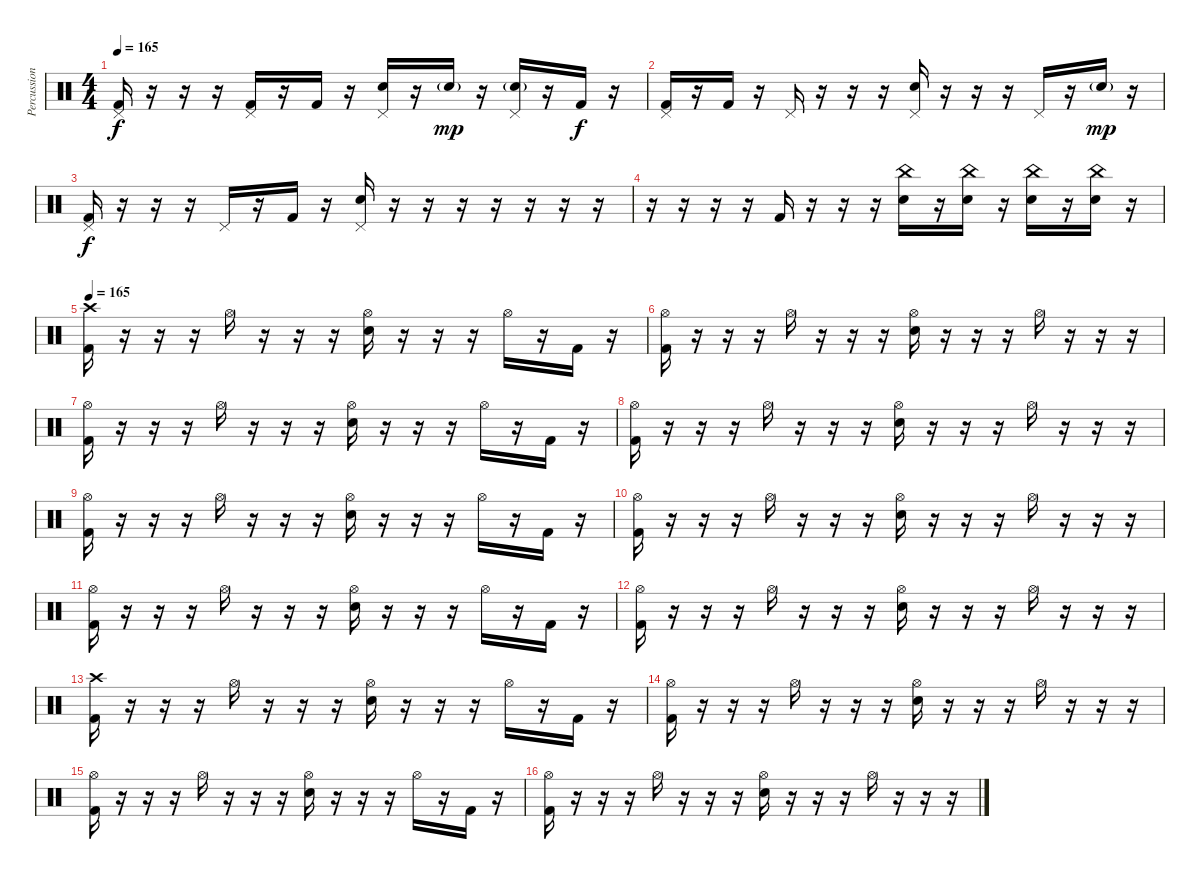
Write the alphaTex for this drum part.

\track ("Percussion" "Percussion") {instrument percussion}
\staff {score}
\articulation defaults
\ts (4 4)
\tempo 165
\clef neutral
\ks c
("Pedal Hi-Hat (hit)" "Kick (hit) 2").16{dy f} r.16 r.16 r.16 ("Pedal Hi-Hat (hit)" "Kick (hit) 2").16 r.16 "Kick (hit) 2".16 r.16 ("Pedal Hi-Hat (hit)" "Snare (hit) 2").16 r.16 "Snare (hit) 2"{g}.16{dy mp} r.16 ("Pedal Hi-Hat (hit)" "Snare (hit) 2"{g}).16 r.16 "Kick (hit) 2".16{dy f} r.16 |
("Pedal Hi-Hat (hit)" "Kick (hit) 2").16 r.16 "Kick (hit) 2".16 r.16 "Pedal Hi-Hat (hit)".16 r.16 r.16 r.16 ("Pedal Hi-Hat (hit)" "Snare (hit) 2").16 r.16 r.16 r.16 "Pedal Hi-Hat (hit)".16 r.16 "Snare (hit) 2"{g}.16{dy mp} r.16 |
("Pedal Hi-Hat (hit)" "Kick (hit) 2").16{dy f} r.16 r.16 r.16 "Pedal Hi-Hat (hit)".16 r.16 "Kick (hit) 2".16 r.16 ("Pedal Hi-Hat (hit)" "Snare (hit) 2").16 r.16 r.16 r.16 r.16 r.16 r.16 r.16 |
r.16 r.16 r.16 r.16 "Kick (hit) 2".16 r.16 r.16 r.16 ("China (hit)" "Snare (hit) 2").16 r.16 ("China (hit)" "Snare (hit) 2").16 r.16 ("China (hit)" "Snare (hit) 2").16 r.16 ("China (hit)" "Snare (hit) 2").16 r.16 |
\tempo 155
\tempo 165
("Crash high (hit)" "Kick (hit) 2").16 r.16 r.16 r.16 "Hi-Hat (open)".16 r.16 r.16 r.16 ("Hi-Hat (open)" "Snare (hit) 2").16 r.16 r.16 r.16 "Hi-Hat (open)".16 r.16 "Kick (hit) 2".16 r.16 |
("Hi-Hat (open)" "Kick (hit) 2").16 r.16 r.16 r.16 "Hi-Hat (open)".16 r.16 r.16 r.16 ("Hi-Hat (open)" "Snare (hit) 2").16 r.16 r.16 r.16 "Hi-Hat (open)".16 r.16 r.16 r.16 |
("Hi-Hat (open)" "Kick (hit) 2").16 r.16 r.16 r.16 "Hi-Hat (open)".16 r.16 r.16 r.16 ("Hi-Hat (open)" "Snare (hit) 2").16 r.16 r.16 r.16 "Hi-Hat (open)".16 r.16 "Kick (hit) 2".16 r.16 |
("Hi-Hat (open)" "Kick (hit) 2").16 r.16 r.16 r.16 "Hi-Hat (open)".16 r.16 r.16 r.16 ("Hi-Hat (open)" "Snare (hit) 2").16 r.16 r.16 r.16 "Hi-Hat (open)".16 r.16 r.16 r.16 |
("Hi-Hat (open)" "Kick (hit) 2").16 r.16 r.16 r.16 "Hi-Hat (open)".16 r.16 r.16 r.16 ("Hi-Hat (open)" "Snare (hit) 2").16 r.16 r.16 r.16 "Hi-Hat (open)".16 r.16 "Kick (hit) 2".16 r.16 |
("Hi-Hat (open)" "Kick (hit) 2").16 r.16 r.16 r.16 "Hi-Hat (open)".16 r.16 r.16 r.16 ("Hi-Hat (open)" "Snare (hit) 2").16 r.16 r.16 r.16 "Hi-Hat (open)".16 r.16 r.16 r.16 |
("Hi-Hat (open)" "Kick (hit) 2").16 r.16 r.16 r.16 "Hi-Hat (open)".16 r.16 r.16 r.16 ("Hi-Hat (open)" "Snare (hit) 2").16 r.16 r.16 r.16 "Hi-Hat (open)".16 r.16 "Kick (hit) 2".16 r.16 |
("Hi-Hat (open)" "Kick (hit) 2").16 r.16 r.16 r.16 "Hi-Hat (open)".16 r.16 r.16 r.16 ("Hi-Hat (open)" "Snare (hit) 2").16 r.16 r.16 r.16 "Hi-Hat (open)".16 r.16 r.16 r.16 |
("Crash high (hit)" "Kick (hit) 2").16 r.16 r.16 r.16 "Hi-Hat (open)".16 r.16 r.16 r.16 ("Hi-Hat (open)" "Snare (hit) 2").16 r.16 r.16 r.16 "Hi-Hat (open)".16 r.16 "Kick (hit) 2".16 r.16 |
("Hi-Hat (open)" "Kick (hit) 2").16 r.16 r.16 r.16 "Hi-Hat (open)".16 r.16 r.16 r.16 ("Hi-Hat (open)" "Snare (hit) 2").16 r.16 r.16 r.16 "Hi-Hat (open)".16 r.16 r.16 r.16 |
("Hi-Hat (open)" "Kick (hit) 2").16 r.16 r.16 r.16 "Hi-Hat (open)".16 r.16 r.16 r.16 ("Hi-Hat (open)" "Snare (hit) 2").16 r.16 r.16 r.16 "Hi-Hat (open)".16 r.16 "Kick (hit) 2".16 r.16 |
("Hi-Hat (open)" "Kick (hit) 2").16 r.16 r.16 r.16 "Hi-Hat (open)".16 r.16 r.16 r.16 ("Hi-Hat (open)" "Snare (hit) 2").16 r.16 r.16 r.16 "Hi-Hat (open)".16 r.16 r.16 r.16
